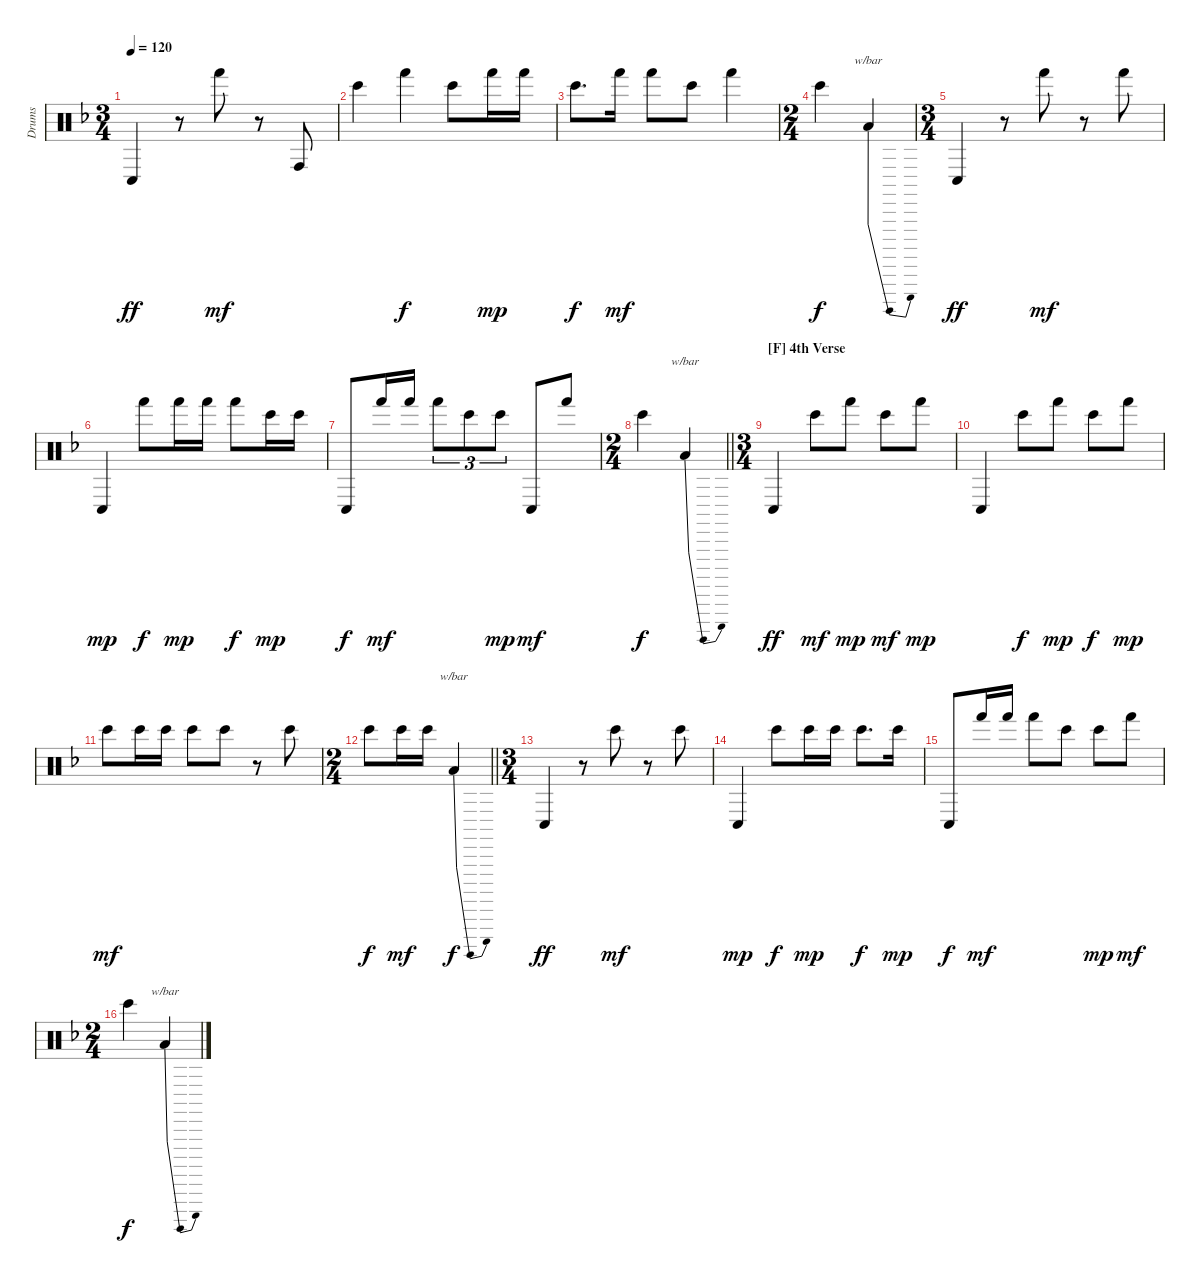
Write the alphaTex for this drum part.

\track ("Drums" "Drums") {instrument percussion}
\staff {score}
\articulation defaults
\ts (3 4)
\tempo 120
\clef neutral
\ks dminor "Conga low (hit)".4{dy ff}
r.8 "Hand (hit)".8{dy mf} r.8 "Conga high (hit)".8 |
"Bongo High (hit)".4 "Hand (hit)".4{dy f} "Bongo High (hit)".8 "Hand (hit)".16{dy mp} "Hand (hit)".16 |
"Bongo High (hit)".8{d dy f} "Hand (hit)".16{dy mf} "Hand (hit)".8 "Bongo High (hit)".8 "Hand (hit)".4 |
\ts (2 4)
"Bongo High (hit)".4{dy f} "Low Tom (hit)".4{tbe (dip default 0 0 30 -12 60 0)} |
\ts (3 4)
"Conga low (hit)".4{dy ff} r.8 "Hand (hit)".8{dy mf} r.8 "Hand (hit)".8 |
"Conga low (hit)".4{dy mp} "Hand (hit)".8{dy f} "Hand (hit)".16{dy mp} "Hand (hit)".16 "Hand (hit)".8{dy f} "Bongo High (hit)".16{dy mp} "Bongo High (hit)".16 |
"Conga low (hit)".8{dy f} "Hand (hit)".16{dy mf} "Hand (hit)".16 "Hand (hit)".8{tu (3 2)} "Bongo High (hit)".8{tu (3 2)} "Bongo High (hit)".8{tu (3 2) dy mp} "Conga low (hit)".8{dy mf} "Hand (hit)".8 |
\ts (2 4)
\barLineRight lightlight "Bongo High (hit)".4{dy f} "Low Tom (hit)".4{tbe (dip default 0 0 30 -12 60 0)}
|
\ts (3 4)
\section ("" "[F] 4th Verse")
"Conga low (hit)".4{dy ff} "Bongo High (hit)".8{dy mf} "Hand (hit)".8{dy mp} "Bongo High (hit)".8{dy mf} "Hand (hit)".8{dy mp} |
"Conga low (hit)".4 "Bongo High (hit)".8{dy f} "Hand (hit)".8{dy mp} "Bongo High (hit)".8{dy f} "Hand (hit)".8{dy mp} |
"Bongo High (hit)".8{dy mf} "Bongo High (hit)".16 "Bongo High (hit)".16 "Bongo High (hit)".8 "Bongo High (hit)".8 r.8 "Bongo High (hit)".8 |
\ts (2 4)
\barLineRight lightlight "Bongo High (hit)".8{dy f} "Bongo High (hit)".16{dy mf} "Bongo High (hit)".16 "Low Tom (hit)".4{tbe (dip default 0 0 30 -12 60 0) dy f}
|
\ts (3 4)
"Conga low (hit)".4{dy ff} r.8 "Bongo High (hit)".8{dy mf} r.8 "Bongo High (hit)".8 |
"Conga low (hit)".4{dy mp} "Bongo High (hit)".8{dy f} "Bongo High (hit)".16{dy mp} "Bongo High (hit)".16 "Bongo High (hit)".8{d dy f} "Bongo High (hit)".16{dy mp} |
"Conga low (hit)".8{dy f} "Hand (hit)".16{dy mf} "Hand (hit)".16 "Hand (hit)".8 "Bongo High (hit)".8 "Bongo High (hit)".8{dy mp} "Hand (hit)".8{dy mf} |
\ts (2 4)
"Bongo High (hit)".4{dy f} "Low Tom (hit)".4{tbe (dip default 0 0 30 -12 60 0)}
